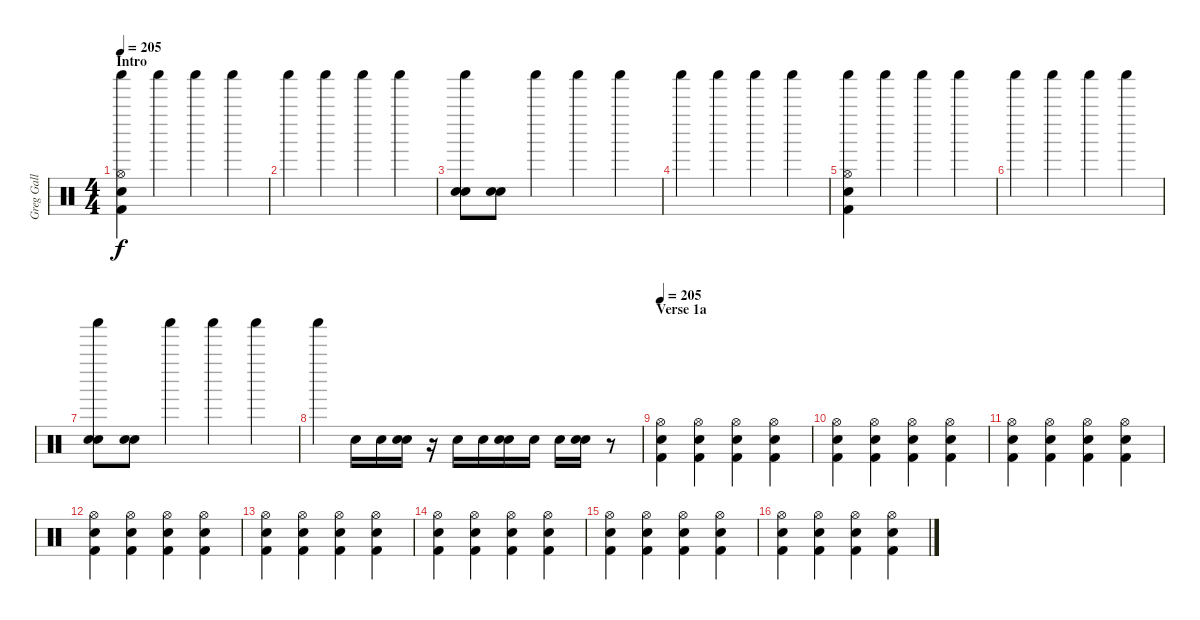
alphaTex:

\track ("Greg Gall - Drums" "Greg Gall ") {instrument percussion}
\staff {score}
\articulation defaults
\ts (4 4)
\section ("" "Intro")
\tempo 205
\tempo 190
\tempo 205
\clef neutral
\ks c
("Shaker (hit)" "Hi-Hat (open)" "Snare (hit) 2" "Kick (hit) 2").4{dy f} "Shaker (hit)".4 "Shaker (hit)".4 "Shaker (hit)".4 |
"Shaker (hit)".4 "Shaker (hit)".4 "Shaker (hit)".4 "Shaker (hit)".4 |
("Shaker (hit)" "Electric Snare (hit)" "Snare (hit) 2").8 ("Electric Snare (hit)" "Snare (hit) 2").8 "Shaker (hit)".4 "Shaker (hit)".4 "Shaker (hit)".4 |
"Shaker (hit)".4 "Shaker (hit)".4 "Shaker (hit)".4 "Shaker (hit)".4 |
("Shaker (hit)" "Hi-Hat (open)" "Snare (hit) 2" "Kick (hit) 2").4 "Shaker (hit)".4 "Shaker (hit)".4 "Shaker (hit)".4 |
"Shaker (hit)".4 "Shaker (hit)".4 "Shaker (hit)".4 "Shaker (hit)".4 |
("Shaker (hit)" "Electric Snare (hit)" "Snare (hit) 2").8 ("Electric Snare (hit)" "Snare (hit) 2").8 "Shaker (hit)".4 "Shaker (hit)".4 "Shaker (hit)".4 |
"Shaker (hit)".4 "Snare (hit) 2".16 "Snare (hit) 2".16 ("Snare (hit) 2" "Electric Snare (hit)").16 r.16 "Snare (hit) 2".16 "Snare (hit) 2".16 ("Snare (hit) 2" "Electric Snare (hit)").16 "Snare (hit) 2".16 "Snare (hit) 2".16 ("Snare (hit) 2" "Electric Snare (hit)").16 r.8 |
\section ("" "Verse 1a")
\tempo 205
("Hi-Hat (open)" "Snare (hit) 2" "Kick (hit) 2").4 ("Hi-Hat (open)" "Snare (hit) 2" "Kick (hit) 2").4 ("Hi-Hat (open)" "Snare (hit) 2" "Kick (hit) 2").4 ("Hi-Hat (open)" "Snare (hit) 2" "Kick (hit) 2").4 |
("Hi-Hat (open)" "Snare (hit) 2" "Kick (hit) 2").4 ("Hi-Hat (open)" "Snare (hit) 2" "Kick (hit) 2").4 ("Hi-Hat (open)" "Snare (hit) 2" "Kick (hit) 2").4 ("Hi-Hat (open)" "Snare (hit) 2" "Kick (hit) 2").4 |
("Hi-Hat (open)" "Snare (hit) 2" "Kick (hit) 2").4 ("Hi-Hat (open)" "Snare (hit) 2" "Kick (hit) 2").4 ("Hi-Hat (open)" "Snare (hit) 2" "Kick (hit) 2").4 ("Hi-Hat (open)" "Snare (hit) 2" "Kick (hit) 2").4 |
("Hi-Hat (open)" "Snare (hit) 2" "Kick (hit) 2").4 ("Hi-Hat (open)" "Snare (hit) 2" "Kick (hit) 2").4 ("Hi-Hat (open)" "Snare (hit) 2" "Kick (hit) 2").4 ("Hi-Hat (open)" "Snare (hit) 2" "Kick (hit) 2").4 |
("Hi-Hat (open)" "Snare (hit) 2" "Kick (hit) 2").4 ("Hi-Hat (open)" "Snare (hit) 2" "Kick (hit) 2").4 ("Hi-Hat (open)" "Snare (hit) 2" "Kick (hit) 2").4 ("Hi-Hat (open)" "Snare (hit) 2" "Kick (hit) 2").4 |
("Hi-Hat (open)" "Snare (hit) 2" "Kick (hit) 2").4 ("Hi-Hat (open)" "Snare (hit) 2" "Kick (hit) 2").4 ("Hi-Hat (open)" "Snare (hit) 2" "Kick (hit) 2").4 ("Hi-Hat (open)" "Snare (hit) 2" "Kick (hit) 2").4 |
("Hi-Hat (open)" "Snare (hit) 2" "Kick (hit) 2").4 ("Hi-Hat (open)" "Snare (hit) 2" "Kick (hit) 2").4 ("Hi-Hat (open)" "Snare (hit) 2" "Kick (hit) 2").4 ("Hi-Hat (open)" "Snare (hit) 2" "Kick (hit) 2").4 |
("Hi-Hat (open)" "Snare (hit) 2" "Kick (hit) 2").4 ("Hi-Hat (open)" "Snare (hit) 2" "Kick (hit) 2").4 ("Hi-Hat (open)" "Snare (hit) 2" "Kick (hit) 2").4 ("Hi-Hat (open)" "Snare (hit) 2" "Kick (hit) 2").4
